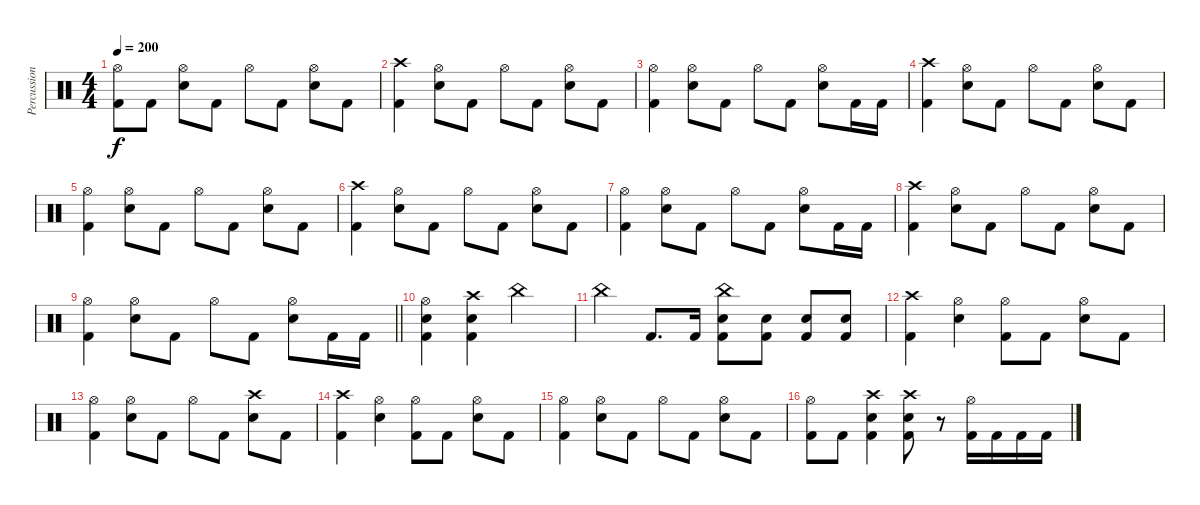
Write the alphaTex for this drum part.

\track ("Percussion" "Percussion") {instrument percussion}
\staff {score}
\articulation defaults
\ts (4 4)
\tempo 200
\clef neutral
\ks c
("Hi-Hat (open)" "Kick (hit) 2").8{dy f} "Kick (hit) 2".8 ("Hi-Hat (open)" "Snare (hit) 2").8 "Kick (hit) 2".8 "Hi-Hat (open)".8 "Kick (hit) 2".8 ("Hi-Hat (open)" "Snare (hit) 2").8 "Kick (hit) 2".8 |
("Crash high (hit)" "Kick (hit) 2").4 ("Hi-Hat (open)" "Snare (hit) 2").8 "Kick (hit) 2".8 "Hi-Hat (open)".8 "Kick (hit) 2".8 ("Hi-Hat (open)" "Snare (hit) 2").8 "Kick (hit) 2".8 |
("Hi-Hat (open)" "Kick (hit) 2").4 ("Hi-Hat (open)" "Snare (hit) 2").8 "Kick (hit) 2".8 "Hi-Hat (open)".8 "Kick (hit) 2".8 ("Hi-Hat (open)" "Snare (hit) 2").8 "Kick (hit) 2".16 "Kick (hit) 2".16 |
("Crash high (hit)" "Kick (hit) 2").4 ("Hi-Hat (open)" "Snare (hit) 2").8 "Kick (hit) 2".8 "Hi-Hat (open)".8 "Kick (hit) 2".8 ("Hi-Hat (open)" "Snare (hit) 2").8 "Kick (hit) 2".8 |
("Hi-Hat (open)" "Kick (hit) 2").4 ("Hi-Hat (open)" "Snare (hit) 2").8 "Kick (hit) 2".8 "Hi-Hat (open)".8 "Kick (hit) 2".8 ("Hi-Hat (open)" "Snare (hit) 2").8 "Kick (hit) 2".8 |
("Crash high (hit)" "Kick (hit) 2").4 ("Hi-Hat (open)" "Snare (hit) 2").8 "Kick (hit) 2".8 "Hi-Hat (open)".8 "Kick (hit) 2".8 ("Hi-Hat (open)" "Snare (hit) 2").8 "Kick (hit) 2".8 |
("Hi-Hat (open)" "Kick (hit) 2").4 ("Hi-Hat (open)" "Snare (hit) 2").8 "Kick (hit) 2".8 "Hi-Hat (open)".8 "Kick (hit) 2".8 ("Hi-Hat (open)" "Snare (hit) 2").8 "Kick (hit) 2".16 "Kick (hit) 2".16 |
("Crash high (hit)" "Kick (hit) 2").4 ("Hi-Hat (open)" "Snare (hit) 2").8 "Kick (hit) 2".8 "Hi-Hat (open)".8 "Kick (hit) 2".8 ("Hi-Hat (open)" "Snare (hit) 2").8 "Kick (hit) 2".8 |
\barLineRight lightlight
("Hi-Hat (open)" "Kick (hit) 2").4 ("Hi-Hat (open)" "Snare (hit) 2").8 "Kick (hit) 2".8 "Hi-Hat (open)".8 "Kick (hit) 2".8 ("Hi-Hat (open)" "Snare (hit) 2").8 "Kick (hit) 2".16 "Kick (hit) 2".16 |
\section ("" "")
("Hi-Hat (open)" "Snare (hit) 2" "Kick (hit) 2").4 ("Crash high (hit)" "Snare (hit) 2" "Kick (hit) 2").4 "China (hit)".2 |
"China (hit)".4 "Kick (hit) 2".8{d} "Kick (hit) 2".16 ("China (hit)" "Snare (hit) 2" "Kick (hit) 2").8 ("Snare (hit) 2" "Kick (hit) 2").8 ("Snare (hit) 2" "Kick (hit) 2").8 ("Snare (hit) 2" "Kick (hit) 2").8 |
("Crash high (hit)" "Kick (hit) 2").4 ("Hi-Hat (open)" "Snare (hit) 2").4 ("Hi-Hat (open)" "Kick (hit) 2").8 "Kick (hit) 2".8 ("Hi-Hat (open)" "Snare (hit) 2").8 "Kick (hit) 2".8 |
("Hi-Hat (open)" "Kick (hit) 2").4 ("Hi-Hat (open)" "Snare (hit) 2").8 "Kick (hit) 2".8 "Hi-Hat (open)".8 "Kick (hit) 2".8 ("Crash high (hit)" "Snare (hit) 2").8 "Kick (hit) 2".8 |
("Crash high (hit)" "Kick (hit) 2").4 ("Hi-Hat (open)" "Snare (hit) 2").4 ("Hi-Hat (open)" "Kick (hit) 2").8 "Kick (hit) 2".8 ("Hi-Hat (open)" "Snare (hit) 2").8 "Kick (hit) 2".8 |
("Hi-Hat (open)" "Kick (hit) 2").4 ("Hi-Hat (open)" "Snare (hit) 2").8 "Kick (hit) 2".8 "Hi-Hat (open)".8 "Kick (hit) 2".8 ("Hi-Hat (open)" "Snare (hit) 2").8 "Kick (hit) 2".8 |
("Hi-Hat (open)" "Kick (hit) 2").8 "Kick (hit) 2".8 ("Crash high (hit)" "Snare (hit) 2" "Kick (hit) 2").4 ("Crash high (hit)" "Snare (hit) 2" "Kick (hit) 2").8 r.8 ("Hi-Hat (open)" "Kick (hit) 2").16 "Kick (hit) 2".16 "Kick (hit) 2".16 "Kick (hit) 2".16
